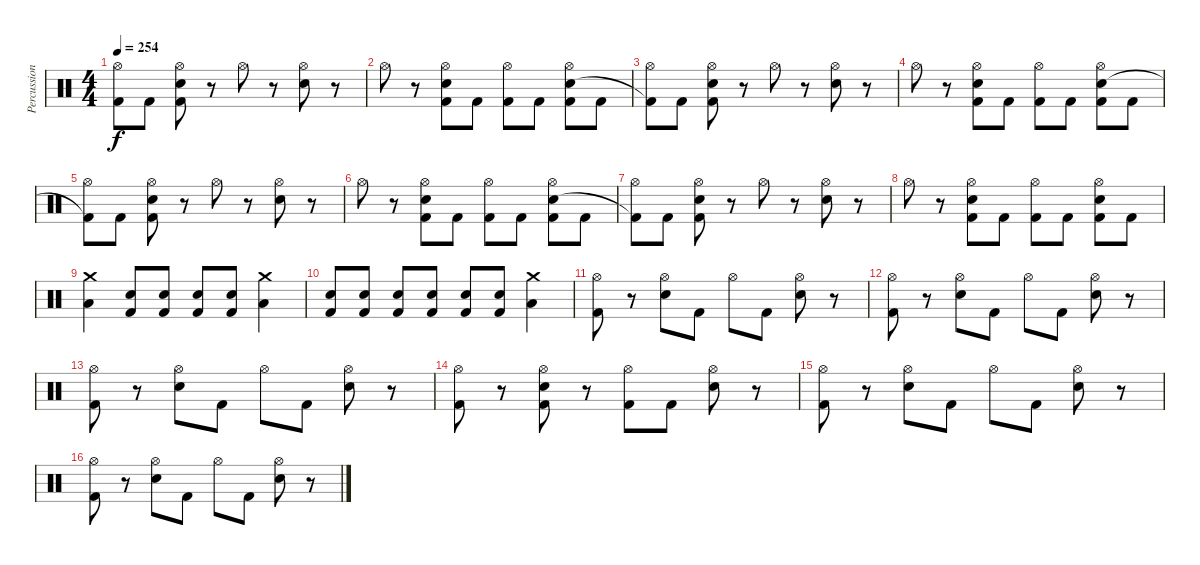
\track ("Percussion" "Percussion") {instrument percussion}
\staff {score}
\articulation defaults
\ts (4 4)
\tempo 254
\clef neutral
\ks c
("Hi-Hat (open)" "Kick (hit) 2").8{dy f} "Kick (hit) 2".8 ("Hi-Hat (open)" "Electric Snare (hit)" "Kick (hit) 2").8 r.8 "Hi-Hat (open)".8 r.8 ("Hi-Hat (open)" "Electric Snare (hit)").8 r.8 |
"Hi-Hat (open)".8 r.8 ("Hi-Hat (open)" "Electric Snare (hit)" "Kick (hit) 2").8 "Kick (hit) 2".8 ("Hi-Hat (open)" "Kick (hit) 2").8 "Kick (hit) 2".8 ("Hi-Hat (open)" "Electric Snare (hit)" "Kick (hit) 2").8 "Kick (hit) 2".8 |
("Hi-Hat (open)" "Kick (hit) 2"{t}).8 "Kick (hit) 2".8 ("Hi-Hat (open)" "Electric Snare (hit)" "Kick (hit) 2").8 r.8 "Hi-Hat (open)".8 r.8 ("Hi-Hat (open)" "Electric Snare (hit)").8 r.8 |
"Hi-Hat (open)".8 r.8 ("Hi-Hat (open)" "Electric Snare (hit)" "Kick (hit) 2").8 "Kick (hit) 2".8 ("Hi-Hat (open)" "Kick (hit) 2").8 "Kick (hit) 2".8 ("Hi-Hat (open)" "Electric Snare (hit)" "Kick (hit) 2").8 "Kick (hit) 2".8 |
("Hi-Hat (open)" "Kick (hit) 2"{t}).8 "Kick (hit) 2".8 ("Hi-Hat (open)" "Electric Snare (hit)" "Kick (hit) 2").8 r.8 "Hi-Hat (open)".8 r.8 ("Hi-Hat (open)" "Electric Snare (hit)").8 r.8 |
"Hi-Hat (open)".8 r.8 ("Hi-Hat (open)" "Electric Snare (hit)" "Kick (hit) 2").8 "Kick (hit) 2".8 ("Hi-Hat (open)" "Kick (hit) 2").8 "Kick (hit) 2".8 ("Hi-Hat (open)" "Electric Snare (hit)" "Kick (hit) 2").8 "Kick (hit) 2".8 |
("Hi-Hat (open)" "Kick (hit) 2"{t}).8 "Kick (hit) 2".8 ("Hi-Hat (open)" "Electric Snare (hit)" "Kick (hit) 2").8 r.8 "Hi-Hat (open)".8 r.8 ("Hi-Hat (open)" "Electric Snare (hit)").8 r.8 |
"Hi-Hat (open)".8 r.8 ("Hi-Hat (open)" "Electric Snare (hit)" "Kick (hit) 2").8 "Kick (hit) 2".8 ("Hi-Hat (open)" "Kick (hit) 2").8 "Kick (hit) 2".8 ("Hi-Hat (open)" "Electric Snare (hit)" "Kick (hit) 2").8 "Kick (hit) 2".8 |
("Crash medium (hit)" "Low Floor Tom (hit)").4 ("Electric Snare (hit)" "Kick (hit) 2").8 ("Electric Snare (hit)" "Kick (hit) 2").8 ("Electric Snare (hit)" "Kick (hit) 2").8 ("Electric Snare (hit)" "Kick (hit) 2").8 ("Crash medium (hit)" "Low Floor Tom (hit)").4 |
("Electric Snare (hit)" "Kick (hit) 2").8 ("Electric Snare (hit)" "Kick (hit) 2").8 ("Electric Snare (hit)" "Kick (hit) 2").8 ("Electric Snare (hit)" "Kick (hit) 2").8 ("Electric Snare (hit)" "Kick (hit) 2").8 ("Electric Snare (hit)" "Kick (hit) 2").8 ("Crash medium (hit)" "Low Floor Tom (hit)").4 |
("Hi-Hat (open)" "Kick (hit) 2").8 r.8 ("Hi-Hat (open)" "Electric Snare (hit)").8 "Kick (hit) 2".8 "Hi-Hat (open)".8 "Kick (hit) 2".8 ("Hi-Hat (open)" "Electric Snare (hit)").8 r.8 |
("Hi-Hat (open)" "Kick (hit) 2").8 r.8 ("Hi-Hat (open)" "Electric Snare (hit)").8 "Kick (hit) 2".8 "Hi-Hat (open)".8 "Kick (hit) 2".8 ("Hi-Hat (open)" "Electric Snare (hit)").8 r.8 |
("Hi-Hat (open)" "Kick (hit) 2").8 r.8 ("Hi-Hat (open)" "Electric Snare (hit)").8 "Kick (hit) 2".8 "Hi-Hat (open)".8 "Kick (hit) 2".8 ("Hi-Hat (open)" "Electric Snare (hit)").8 r.8 |
("Hi-Hat (open)" "Kick (hit) 2").8 r.8 ("Hi-Hat (open)" "Electric Snare (hit)" "Kick (hit) 2").8 r.8 ("Hi-Hat (open)" "Kick (hit) 2").8 "Kick (hit) 2".8 ("Hi-Hat (open)" "Electric Snare (hit)").8 r.8 |
("Hi-Hat (open)" "Kick (hit) 2").8 r.8 ("Hi-Hat (open)" "Electric Snare (hit)").8 "Kick (hit) 2".8 "Hi-Hat (open)".8 "Kick (hit) 2".8 ("Hi-Hat (open)" "Electric Snare (hit)").8 r.8 |
("Hi-Hat (open)" "Kick (hit) 2").8 r.8 ("Hi-Hat (open)" "Electric Snare (hit)").8 "Kick (hit) 2".8 "Hi-Hat (open)".8 "Kick (hit) 2".8 ("Hi-Hat (open)" "Electric Snare (hit)").8 r.8
